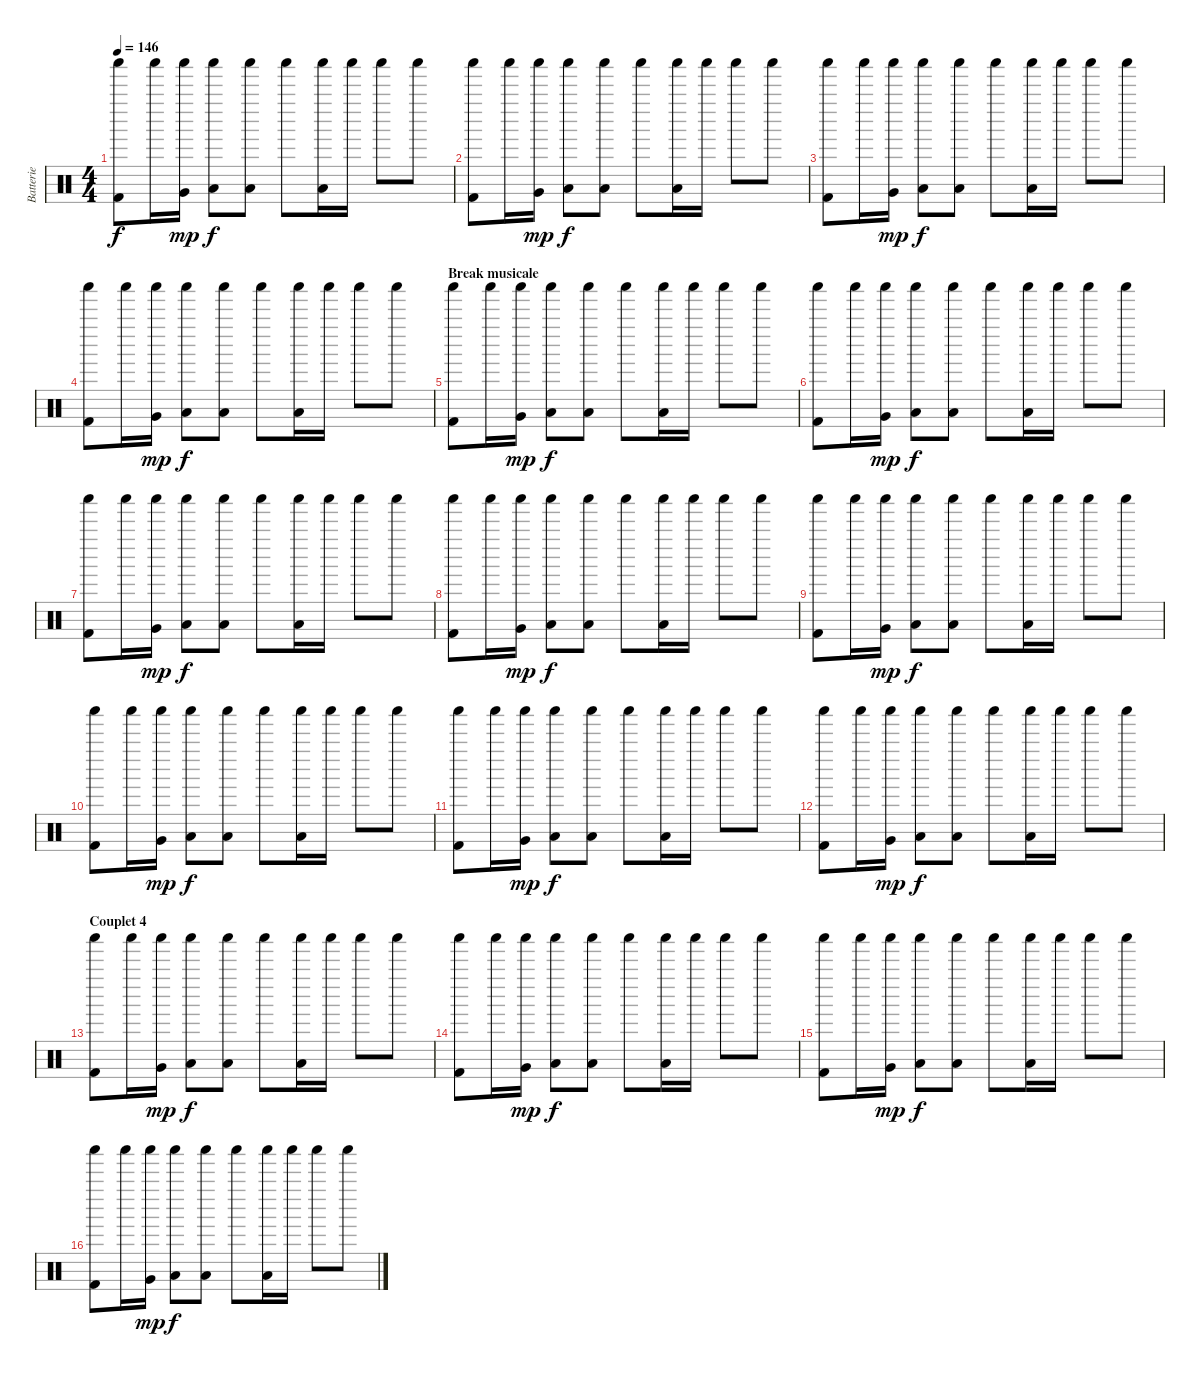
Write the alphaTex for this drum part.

\track ("Batterie" "Batterie") {instrument percussion}
\staff {score}
\articulation defaults
\ts (4 4)
\tempo 146
\clef neutral
\ks c
("Shaker (hit)" "Kick (hit) 2").8{dy f} "Shaker (hit)".16 ("Shaker (hit)" "Very Low Tom (hit)").16{dy mp} ("Shaker (hit)" "Low Tom (hit)").8{dy f} ("Shaker (hit)" "Low Tom (hit)").8 "Shaker (hit)".8 ("Shaker (hit)" "Low Tom (hit)").16 "Shaker (hit)".16 "Shaker (hit)".8 "Shaker (hit)".8 |
("Shaker (hit)" "Kick (hit) 2").8 "Shaker (hit)".16 ("Shaker (hit)" "Very Low Tom (hit)").16{dy mp} ("Shaker (hit)" "Low Tom (hit)").8{dy f} ("Shaker (hit)" "Low Tom (hit)").8 "Shaker (hit)".8 ("Shaker (hit)" "Low Tom (hit)").16 "Shaker (hit)".16 "Shaker (hit)".8 "Shaker (hit)".8 |
("Shaker (hit)" "Kick (hit) 2").8 "Shaker (hit)".16 ("Shaker (hit)" "Very Low Tom (hit)").16{dy mp} ("Shaker (hit)" "Low Tom (hit)").8{dy f} ("Shaker (hit)" "Low Tom (hit)").8 "Shaker (hit)".8 ("Shaker (hit)" "Low Tom (hit)").16 "Shaker (hit)".16 "Shaker (hit)".8 "Shaker (hit)".8 |
("Shaker (hit)" "Kick (hit) 2").8 "Shaker (hit)".16 ("Shaker (hit)" "Very Low Tom (hit)").16{dy mp} ("Shaker (hit)" "Low Tom (hit)").8{dy f} ("Shaker (hit)" "Low Tom (hit)").8 "Shaker (hit)".8 ("Shaker (hit)" "Low Tom (hit)").16 "Shaker (hit)".16 "Shaker (hit)".8 "Shaker (hit)".8 |
\section ("" "Break musicale")
("Shaker (hit)" "Kick (hit) 2").8 "Shaker (hit)".16 ("Shaker (hit)" "Very Low Tom (hit)").16{dy mp} ("Shaker (hit)" "Low Tom (hit)").8{dy f} ("Shaker (hit)" "Low Tom (hit)").8 "Shaker (hit)".8 ("Shaker (hit)" "Low Tom (hit)").16 "Shaker (hit)".16 "Shaker (hit)".8 "Shaker (hit)".8 |
("Shaker (hit)" "Kick (hit) 2").8 "Shaker (hit)".16 ("Shaker (hit)" "Very Low Tom (hit)").16{dy mp} ("Shaker (hit)" "Low Tom (hit)").8{dy f} ("Shaker (hit)" "Low Tom (hit)").8 "Shaker (hit)".8 ("Shaker (hit)" "Low Tom (hit)").16 "Shaker (hit)".16 "Shaker (hit)".8 "Shaker (hit)".8 |
("Shaker (hit)" "Kick (hit) 2").8 "Shaker (hit)".16 ("Shaker (hit)" "Very Low Tom (hit)").16{dy mp} ("Shaker (hit)" "Low Tom (hit)").8{dy f} ("Shaker (hit)" "Low Tom (hit)").8 "Shaker (hit)".8 ("Shaker (hit)" "Low Tom (hit)").16 "Shaker (hit)".16 "Shaker (hit)".8 "Shaker (hit)".8 |
("Shaker (hit)" "Kick (hit) 2").8 "Shaker (hit)".16 ("Shaker (hit)" "Very Low Tom (hit)").16{dy mp} ("Shaker (hit)" "Low Tom (hit)").8{dy f} ("Shaker (hit)" "Low Tom (hit)").8 "Shaker (hit)".8 ("Shaker (hit)" "Low Tom (hit)").16 "Shaker (hit)".16 "Shaker (hit)".8 "Shaker (hit)".8 |
("Shaker (hit)" "Kick (hit) 2").8 "Shaker (hit)".16 ("Shaker (hit)" "Very Low Tom (hit)").16{dy mp} ("Shaker (hit)" "Low Tom (hit)").8{dy f} ("Shaker (hit)" "Low Tom (hit)").8 "Shaker (hit)".8 ("Shaker (hit)" "Low Tom (hit)").16 "Shaker (hit)".16 "Shaker (hit)".8 "Shaker (hit)".8 |
("Shaker (hit)" "Kick (hit) 2").8 "Shaker (hit)".16 ("Shaker (hit)" "Very Low Tom (hit)").16{dy mp} ("Shaker (hit)" "Low Tom (hit)").8{dy f} ("Shaker (hit)" "Low Tom (hit)").8 "Shaker (hit)".8 ("Shaker (hit)" "Low Tom (hit)").16 "Shaker (hit)".16 "Shaker (hit)".8 "Shaker (hit)".8 |
("Shaker (hit)" "Kick (hit) 2").8 "Shaker (hit)".16 ("Shaker (hit)" "Very Low Tom (hit)").16{dy mp} ("Shaker (hit)" "Low Tom (hit)").8{dy f} ("Shaker (hit)" "Low Tom (hit)").8 "Shaker (hit)".8 ("Shaker (hit)" "Low Tom (hit)").16 "Shaker (hit)".16 "Shaker (hit)".8 "Shaker (hit)".8 |
("Shaker (hit)" "Kick (hit) 2").8 "Shaker (hit)".16 ("Shaker (hit)" "Very Low Tom (hit)").16{dy mp} ("Shaker (hit)" "Low Tom (hit)").8{dy f} ("Shaker (hit)" "Low Tom (hit)").8 "Shaker (hit)".8 ("Shaker (hit)" "Low Tom (hit)").16 "Shaker (hit)".16 "Shaker (hit)".8 "Shaker (hit)".8 |
\section ("" "Couplet 4")
("Shaker (hit)" "Kick (hit) 2").8 "Shaker (hit)".16 ("Shaker (hit)" "Very Low Tom (hit)").16{dy mp} ("Shaker (hit)" "Low Tom (hit)").8{dy f} ("Shaker (hit)" "Low Tom (hit)").8 "Shaker (hit)".8 ("Shaker (hit)" "Low Tom (hit)").16 "Shaker (hit)".16 "Shaker (hit)".8 "Shaker (hit)".8 |
("Shaker (hit)" "Kick (hit) 2").8 "Shaker (hit)".16 ("Shaker (hit)" "Very Low Tom (hit)").16{dy mp} ("Shaker (hit)" "Low Tom (hit)").8{dy f} ("Shaker (hit)" "Low Tom (hit)").8 "Shaker (hit)".8 ("Shaker (hit)" "Low Tom (hit)").16 "Shaker (hit)".16 "Shaker (hit)".8 "Shaker (hit)".8 |
("Shaker (hit)" "Kick (hit) 2").8 "Shaker (hit)".16 ("Shaker (hit)" "Very Low Tom (hit)").16{dy mp} ("Shaker (hit)" "Low Tom (hit)").8{dy f} ("Shaker (hit)" "Low Tom (hit)").8 "Shaker (hit)".8 ("Shaker (hit)" "Low Tom (hit)").16 "Shaker (hit)".16 "Shaker (hit)".8 "Shaker (hit)".8 |
("Shaker (hit)" "Kick (hit) 2").8 "Shaker (hit)".16 ("Shaker (hit)" "Very Low Tom (hit)").16{dy mp} ("Shaker (hit)" "Low Tom (hit)").8{dy f} ("Shaker (hit)" "Low Tom (hit)").8 "Shaker (hit)".8 ("Shaker (hit)" "Low Tom (hit)").16 "Shaker (hit)".16 "Shaker (hit)".8 "Shaker (hit)".8
